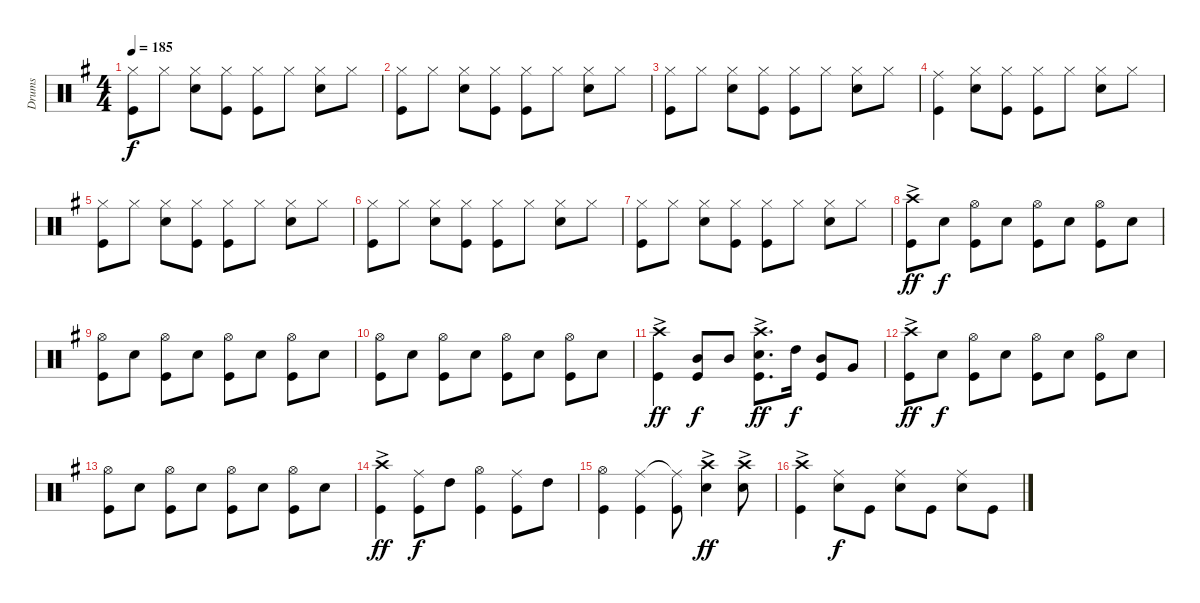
\track ("Drums" "Drums") {instrument percussion}
\staff {score}
\articulation defaults
\ts (4 4)
\tempo 185
\clef neutral
\ks g
("Hi-Hat (closed)" "Kick (hit)").8{dy f} "Hi-Hat (closed)".8 ("Hi-Hat (closed)" "Snare (hit) 2").8 ("Hi-Hat (closed)" "Kick (hit)").8 ("Hi-Hat (closed)" "Kick (hit)").8 "Hi-Hat (closed)".8 ("Hi-Hat (closed)" "Snare (hit) 2").8 "Hi-Hat (closed)".8 |
("Hi-Hat (closed)" "Kick (hit)").8 "Hi-Hat (closed)".8 ("Hi-Hat (closed)" "Snare (hit) 2").8 ("Hi-Hat (closed)" "Kick (hit)").8 ("Hi-Hat (closed)" "Kick (hit)").8 "Hi-Hat (closed)".8 ("Hi-Hat (closed)" "Snare (hit) 2").8 "Hi-Hat (closed)".8 |
("Hi-Hat (closed)" "Kick (hit)").8 "Hi-Hat (closed)".8 ("Hi-Hat (closed)" "Snare (hit) 2").8 ("Hi-Hat (closed)" "Kick (hit)").8 ("Hi-Hat (closed)" "Kick (hit)").8 "Hi-Hat (closed)".8 ("Hi-Hat (closed)" "Snare (hit) 2").8 "Hi-Hat (closed)".8 |
("Ride (middle)" "Kick (hit)").4 ("Hi-Hat (closed)" "Snare (hit) 2").8 ("Hi-Hat (closed)" "Kick (hit)").8 ("Hi-Hat (closed)" "Kick (hit)").8 "Hi-Hat (closed)".8 ("Hi-Hat (closed)" "Snare (hit) 2").8 "Hi-Hat (closed)".8 |
("Hi-Hat (closed)" "Kick (hit)").8 "Hi-Hat (closed)".8 ("Hi-Hat (closed)" "Snare (hit) 2").8 ("Hi-Hat (closed)" "Kick (hit)").8 ("Hi-Hat (closed)" "Kick (hit)").8 "Hi-Hat (closed)".8 ("Hi-Hat (closed)" "Snare (hit) 2").8 "Hi-Hat (closed)".8 |
("Hi-Hat (closed)" "Kick (hit)").8 "Hi-Hat (closed)".8 ("Hi-Hat (closed)" "Snare (hit) 2").8 ("Hi-Hat (closed)" "Kick (hit)").8 ("Hi-Hat (closed)" "Kick (hit)").8 "Hi-Hat (closed)".8 ("Hi-Hat (closed)" "Snare (hit) 2").8 "Hi-Hat (closed)".8 |
("Hi-Hat (closed)" "Kick (hit)").8 "Hi-Hat (closed)".8 ("Hi-Hat (closed)" "Snare (hit) 2").8 ("Hi-Hat (closed)" "Kick (hit)").8 ("Hi-Hat (closed)" "Kick (hit)").8 "Hi-Hat (closed)".8 ("Hi-Hat (closed)" "Snare (hit) 2").8 "Hi-Hat (closed)".8 |
("Crash high (hit)"{ac} "Kick (hit)").8{dy ff} "Snare (hit) 2".8{dy f} ("Hi-Hat (open)" "Kick (hit)").8 "Snare (hit) 2".8 ("Hi-Hat (open)" "Kick (hit)").8 "Snare (hit) 2".8 ("Hi-Hat (open)" "Kick (hit)").8 "Snare (hit) 2".8 |
("Hi-Hat (open)" "Kick (hit)").8 "Snare (hit) 2".8 ("Hi-Hat (open)" "Kick (hit)").8 "Snare (hit) 2".8 ("Hi-Hat (open)" "Kick (hit)").8 "Snare (hit) 2".8 ("Hi-Hat (open)" "Kick (hit)").8 "Snare (hit) 2".8 |
("Hi-Hat (open)" "Kick (hit)").8 "Snare (hit) 2".8 ("Hi-Hat (open)" "Kick (hit)").8 "Snare (hit) 2".8 ("Hi-Hat (open)" "Kick (hit)").8 "Snare (hit) 2".8 ("Hi-Hat (open)" "Kick (hit)").8 "Snare (hit) 2".8 |
("Crash high (hit)"{ac} "Kick (hit)").4{dy ff} ("Mid Tom (hit)" "Kick (hit)").8{dy f} "Mid Tom (hit)".8 ("Crash high (hit)"{ac} "Snare (hit) 2" "Kick (hit)").8{d dy ff} "High Tom (hit)".16{dy f} ("Mid Tom (hit)" "Kick (hit)").8 "Very Low Tom (hit)".8 |
("Crash high (hit)"{ac} "Kick (hit)").8{dy ff} "Snare (hit) 2".8{dy f} ("Hi-Hat (open)" "Kick (hit)").8 "Snare (hit) 2".8 ("Hi-Hat (open)" "Kick (hit)").8 "Snare (hit) 2".8 ("Hi-Hat (open)" "Kick (hit)").8 "Snare (hit) 2".8 |
("Hi-Hat (open)" "Kick (hit)").8 "Snare (hit) 2".8 ("Hi-Hat (open)" "Kick (hit)").8 "Snare (hit) 2".8 ("Hi-Hat (open)" "Kick (hit)").8 "Snare (hit) 2".8 ("Hi-Hat (open)" "Kick (hit)").8 "Snare (hit) 2".8 |
("Crash high (hit)"{ac} "Kick (hit)").4{dy ff} ("Ride (middle)" "Kick (hit)").8{dy f} "High Tom (hit)".8 ("Hi-Hat (open)" "Kick (hit)").4 ("Ride (middle)" "Kick (hit)").8 "High Tom (hit)".8 |
("Hi-Hat (open)" "Kick (hit)").4 ("Ride (middle)" "Kick (hit)").4 ("Ride (middle)"{t} "Kick (hit)").8 ("Crash high (hit)"{ac} "Snare (hit) 2").4{dy ff} ("Crash high (hit)"{ac} "Snare (hit) 2").8 |
("Crash high (hit)"{ac} "Kick (hit)").4 ("Ride (middle)" "Snare (hit) 2").8{dy f} "Kick (hit)".8 ("Ride (middle)" "Snare (hit) 2").8 "Kick (hit)".8 ("Ride (middle)" "Snare (hit) 2").8 "Kick (hit)".8
